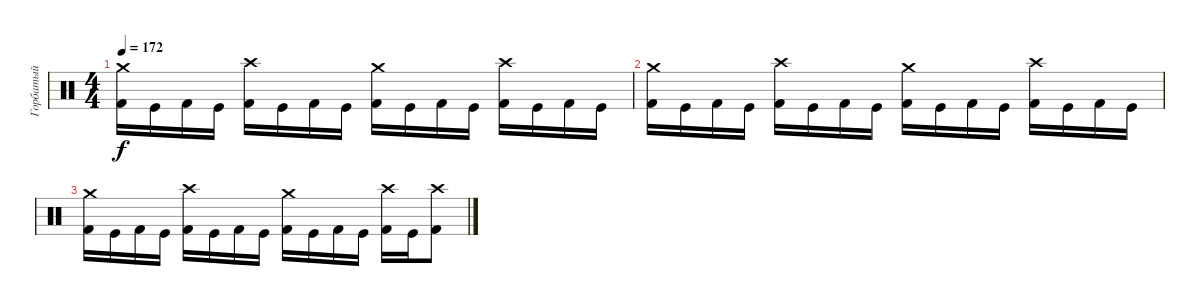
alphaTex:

\track ("Горбатый" "Горбатый") {instrument percussion}
\staff {score}
\articulation defaults
\ts (4 4)
\tempo 172
\clef neutral
\ks c
("Crash medium (hit)" "Kick (hit) 2").16{dy f} "Kick (hit)".16 "Kick (hit) 2".16 "Kick (hit)".16 ("Crash high (hit)" "Kick (hit) 2").16 "Kick (hit)".16 "Kick (hit) 2".16 "Kick (hit)".16 ("Crash medium (hit)" "Kick (hit) 2").16 "Kick (hit)".16 "Kick (hit) 2".16 "Kick (hit)".16 ("Crash high (hit)" "Kick (hit) 2").16 "Kick (hit)".16 "Kick (hit) 2".16 "Kick (hit)".16 |
("Crash medium (hit)" "Kick (hit) 2").16 "Kick (hit)".16 "Kick (hit) 2".16 "Kick (hit)".16 ("Crash high (hit)" "Kick (hit) 2").16 "Kick (hit)".16 "Kick (hit) 2".16 "Kick (hit)".16 ("Crash medium (hit)" "Kick (hit) 2").16 "Kick (hit)".16 "Kick (hit) 2".16 "Kick (hit)".16 ("Crash high (hit)" "Kick (hit) 2").16 "Kick (hit)".16 "Kick (hit) 2".16 "Kick (hit)".16 |
("Crash medium (hit)" "Kick (hit) 2").16 "Kick (hit)".16 "Kick (hit) 2".16 "Kick (hit)".16 ("Crash high (hit)" "Kick (hit) 2").16 "Kick (hit)".16 "Kick (hit) 2".16 "Kick (hit)".16 ("Crash medium (hit)" "Kick (hit) 2").16 "Kick (hit)".16 "Kick (hit) 2".16 "Kick (hit)".16 ("Crash high (hit)" "Kick (hit) 2").16 "Kick (hit)".16 ("Crash high (hit)" "Kick (hit) 2").8
